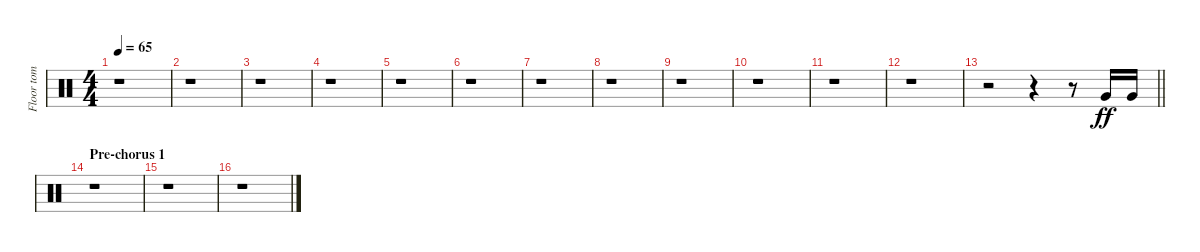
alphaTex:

\track ("Floor tom" "Floor tom") {instrument percussion}
\staff {score}
\articulation defaults
\ts (4 4)
\tempo 65
\clef neutral
\ks c
r.1{dy ff} |
r.1 |
r.1 |
r.1 |
r.1 |
r.1 |
r.1 |
r.1 |
r.1 |
r.1 |
r.1 |
r.1 |
\barLineRight lightlight
r.2 r.4{beam split} r.8 "Very Low Tom (hit)".16 "Very Low Tom (hit)".16 |
\section ("" "Pre-chorus 1")
r.1 |
r.1 |
r.1
